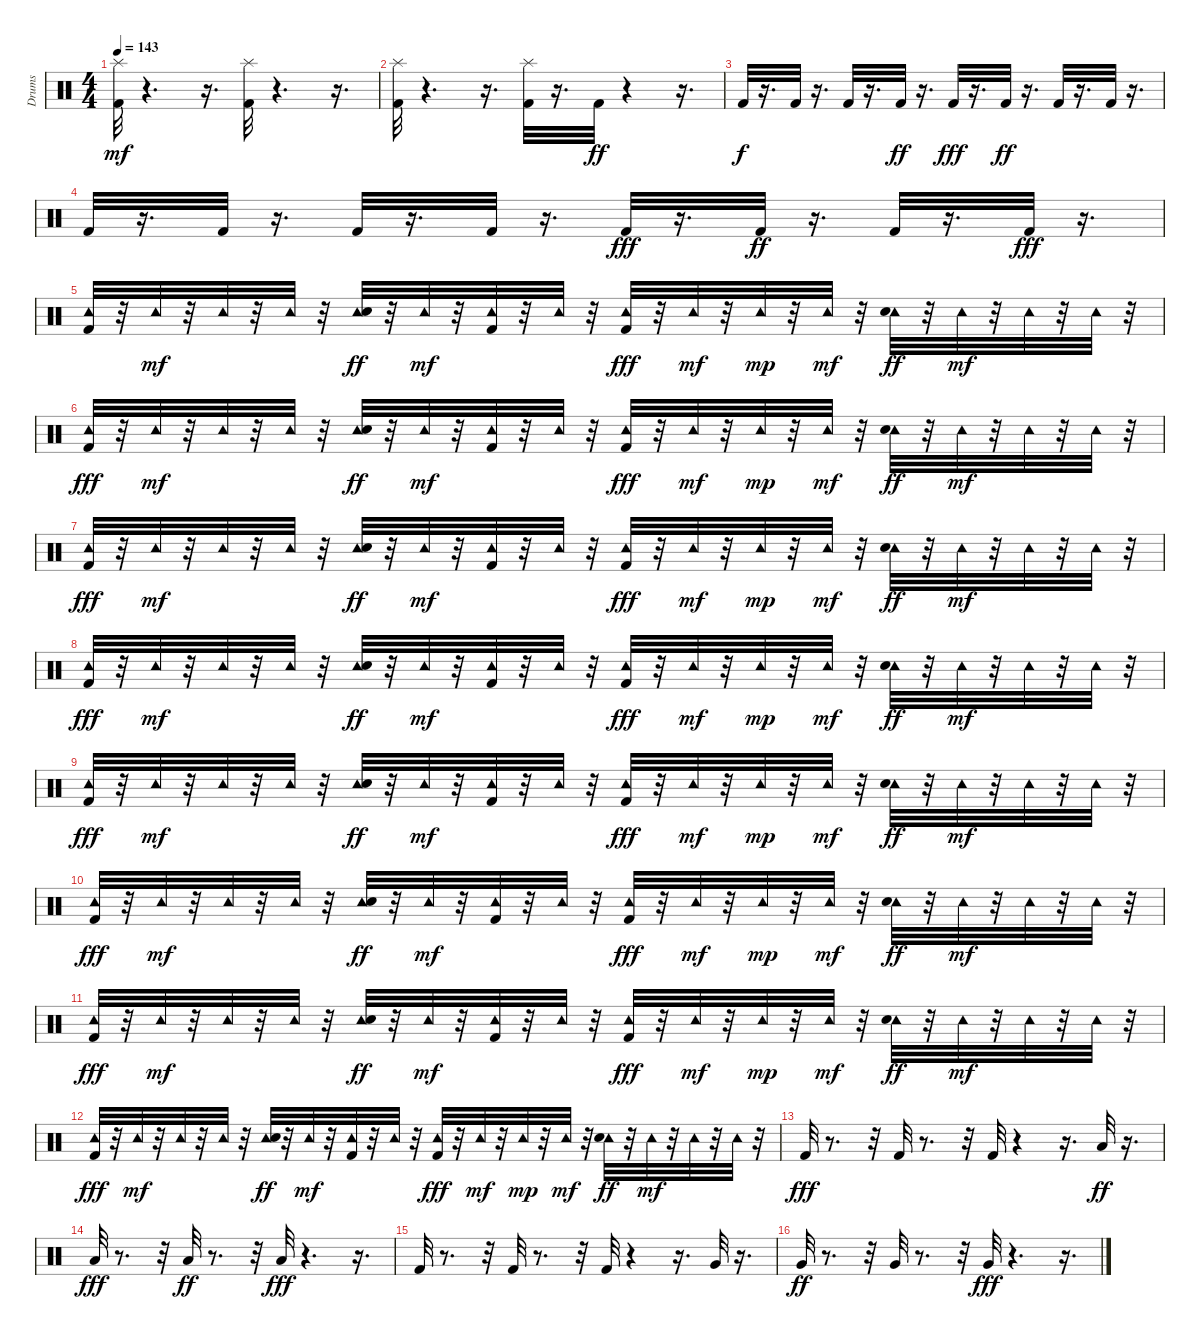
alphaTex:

\track ("Drums" "Drums") {instrument percussion}
\staff {score}
\articulation defaults
\ts (4 4)
\tempo 143
\clef neutral
\ks c
("Splash (hit)" "Kick (hit) 2").32{dy mf} r.4{d} r.16{d} ("Splash (hit)" "Kick (hit) 2").32 r.4{d} r.16{d} |
("Splash (hit)" "Kick (hit) 2").32 r.4{d} r.16{d} ("Splash (hit)" "Kick (hit) 2").32 r.16{d} "Kick (hit) 2".32{dy ff} r.4 r.16{d} |
"Kick (hit) 2".32{dy f} r.16{d} "Kick (hit) 2".32 r.16{d} "Kick (hit) 2".32 r.16{d} "Kick (hit) 2".32{dy ff} r.16{d} "Kick (hit) 2".32{dy fff} r.16{d} "Kick (hit) 2".32{dy ff} r.16{d} "Kick (hit) 2".32 r.16{d} "Kick (hit) 2".32 r.16{d} |
"Kick (hit) 2".32 r.16{d} "Kick (hit) 2".32 r.16{d} "Kick (hit) 2".32 r.16{d} "Kick (hit) 2".32 r.16{d} "Kick (hit) 2".32{dy fff} r.16{d} "Kick (hit) 2".32{dy ff} r.16{d} "Kick (hit) 2".32 r.16{d} "Kick (hit) 2".32{dy fff} r.16{d} |
("Kick (hit) 2" "Tambourine (hit)").32 r.32 "Tambourine (hit)".32{dy mf} r.32 "Tambourine (hit)".32 r.32 "Tambourine (hit)".32 r.32 ("Tambourine (hit)" "Snare (hit) 2").32{dy ff} r.32 "Tambourine (hit)".32{dy mf} r.32 ("Kick (hit) 2" "Tambourine (hit)").32 r.32 "Tambourine (hit)".32 r.32 ("Kick (hit) 2" "Tambourine (hit)").32{dy fff} r.32 "Tambourine (hit)".32{dy mf} r.32 "Tambourine (hit)".32{dy mp} r.32 "Tambourine (hit)".32{dy mf} r.32 ("Tambourine (hit)" "Snare (hit) 2").32{dy ff} r.32 "Tambourine (hit)".32{dy mf} r.32 "Tambourine (hit)".32 r.32 "Tambourine (hit)".32 r.32 |
("Kick (hit) 2" "Tambourine (hit)").32{dy fff} r.32 "Tambourine (hit)".32{dy mf} r.32 "Tambourine (hit)".32 r.32 "Tambourine (hit)".32 r.32 ("Tambourine (hit)" "Snare (hit) 2").32{dy ff} r.32 "Tambourine (hit)".32{dy mf} r.32 ("Kick (hit) 2" "Tambourine (hit)").32 r.32 "Tambourine (hit)".32 r.32 ("Kick (hit) 2" "Tambourine (hit)").32{dy fff} r.32 "Tambourine (hit)".32{dy mf} r.32 "Tambourine (hit)".32{dy mp} r.32 "Tambourine (hit)".32{dy mf} r.32 ("Tambourine (hit)" "Snare (hit) 2").32{dy ff} r.32 "Tambourine (hit)".32{dy mf} r.32 "Tambourine (hit)".32 r.32 "Tambourine (hit)".32 r.32 |
("Kick (hit) 2" "Tambourine (hit)").32{dy fff} r.32 "Tambourine (hit)".32{dy mf} r.32 "Tambourine (hit)".32 r.32 "Tambourine (hit)".32 r.32 ("Tambourine (hit)" "Snare (hit) 2").32{dy ff} r.32 "Tambourine (hit)".32{dy mf} r.32 ("Kick (hit) 2" "Tambourine (hit)").32 r.32 "Tambourine (hit)".32 r.32 ("Kick (hit) 2" "Tambourine (hit)").32{dy fff} r.32 "Tambourine (hit)".32{dy mf} r.32 "Tambourine (hit)".32{dy mp} r.32 "Tambourine (hit)".32{dy mf} r.32 ("Tambourine (hit)" "Snare (hit) 2").32{dy ff} r.32 "Tambourine (hit)".32{dy mf} r.32 "Tambourine (hit)".32 r.32 "Tambourine (hit)".32 r.32 |
("Kick (hit) 2" "Tambourine (hit)").32{dy fff} r.32 "Tambourine (hit)".32{dy mf} r.32 "Tambourine (hit)".32 r.32 "Tambourine (hit)".32 r.32 ("Tambourine (hit)" "Snare (hit) 2").32{dy ff} r.32 "Tambourine (hit)".32{dy mf} r.32 ("Kick (hit) 2" "Tambourine (hit)").32 r.32 "Tambourine (hit)".32 r.32 ("Kick (hit) 2" "Tambourine (hit)").32{dy fff} r.32 "Tambourine (hit)".32{dy mf} r.32 "Tambourine (hit)".32{dy mp} r.32 "Tambourine (hit)".32{dy mf} r.32 ("Tambourine (hit)" "Snare (hit) 2").32{dy ff} r.32 "Tambourine (hit)".32{dy mf} r.32 "Tambourine (hit)".32 r.32 "Tambourine (hit)".32 r.32 |
("Kick (hit) 2" "Tambourine (hit)").32{dy fff} r.32 "Tambourine (hit)".32{dy mf} r.32 "Tambourine (hit)".32 r.32 "Tambourine (hit)".32 r.32 ("Tambourine (hit)" "Snare (hit) 2").32{dy ff} r.32 "Tambourine (hit)".32{dy mf} r.32 ("Kick (hit) 2" "Tambourine (hit)").32 r.32 "Tambourine (hit)".32 r.32 ("Kick (hit) 2" "Tambourine (hit)").32{dy fff} r.32 "Tambourine (hit)".32{dy mf} r.32 "Tambourine (hit)".32{dy mp} r.32 "Tambourine (hit)".32{dy mf} r.32 ("Tambourine (hit)" "Snare (hit) 2").32{dy ff} r.32 "Tambourine (hit)".32{dy mf} r.32 "Tambourine (hit)".32 r.32 "Tambourine (hit)".32 r.32 |
("Kick (hit) 2" "Tambourine (hit)").32{dy fff} r.32 "Tambourine (hit)".32{dy mf} r.32 "Tambourine (hit)".32 r.32 "Tambourine (hit)".32 r.32 ("Tambourine (hit)" "Snare (hit) 2").32{dy ff} r.32 "Tambourine (hit)".32{dy mf} r.32 ("Kick (hit) 2" "Tambourine (hit)").32 r.32 "Tambourine (hit)".32 r.32 ("Kick (hit) 2" "Tambourine (hit)").32{dy fff} r.32 "Tambourine (hit)".32{dy mf} r.32 "Tambourine (hit)".32{dy mp} r.32 "Tambourine (hit)".32{dy mf} r.32 ("Tambourine (hit)" "Snare (hit) 2").32{dy ff} r.32 "Tambourine (hit)".32{dy mf} r.32 "Tambourine (hit)".32 r.32 "Tambourine (hit)".32 r.32 |
("Kick (hit) 2" "Tambourine (hit)").32{dy fff} r.32 "Tambourine (hit)".32{dy mf} r.32 "Tambourine (hit)".32 r.32 "Tambourine (hit)".32 r.32 ("Tambourine (hit)" "Snare (hit) 2").32{dy ff} r.32 "Tambourine (hit)".32{dy mf} r.32 ("Kick (hit) 2" "Tambourine (hit)").32 r.32 "Tambourine (hit)".32 r.32 ("Kick (hit) 2" "Tambourine (hit)").32{dy fff} r.32 "Tambourine (hit)".32{dy mf} r.32 "Tambourine (hit)".32{dy mp} r.32 "Tambourine (hit)".32{dy mf} r.32 ("Tambourine (hit)" "Snare (hit) 2").32{dy ff} r.32 "Tambourine (hit)".32{dy mf} r.32 "Tambourine (hit)".32 r.32 "Tambourine (hit)".32 r.32 |
("Kick (hit) 2" "Tambourine (hit)").32{dy fff} r.32 "Tambourine (hit)".32{dy mf} r.32 "Tambourine (hit)".32 r.32 "Tambourine (hit)".32 r.32 ("Tambourine (hit)" "Snare (hit) 2").32{dy ff} r.32 "Tambourine (hit)".32{dy mf} r.32 ("Kick (hit) 2" "Tambourine (hit)").32 r.32 "Tambourine (hit)".32 r.32 ("Kick (hit) 2" "Tambourine (hit)").32{dy fff} r.32 "Tambourine (hit)".32{dy mf} r.32 "Tambourine (hit)".32{dy mp} r.32 "Tambourine (hit)".32{dy mf} r.32 ("Tambourine (hit)" "Snare (hit) 2").32{dy ff} r.32 "Tambourine (hit)".32{dy mf} r.32 "Tambourine (hit)".32 r.32 "Tambourine (hit)".32 r.32 |
"Kick (hit) 2".32{dy fff} r.8{d} r.32 "Kick (hit) 2".32 r.8{d} r.32 "Kick (hit) 2".32 r.4 r.16{d} "Low Tom (hit)".32{dy ff} r.16{d} |
"Low Tom (hit)".32{dy fff} r.8{d} r.32 "Low Tom (hit)".32{dy ff} r.8{d} r.32 "Low Tom (hit)".32{dy fff} r.4{d} r.16{d} |
"Kick (hit) 2".32 r.8{d} r.32 "Kick (hit) 2".32 r.8{d} r.32 "Kick (hit) 2".32 r.4 r.16{d} "Very Low Tom (hit)".32 r.16{d} |
"Very Low Tom (hit)".32{dy ff} r.8{d} r.32 "Very Low Tom (hit)".32 r.8{d} r.32 "Very Low Tom (hit)".32{dy fff} r.4{d} r.16{d}
